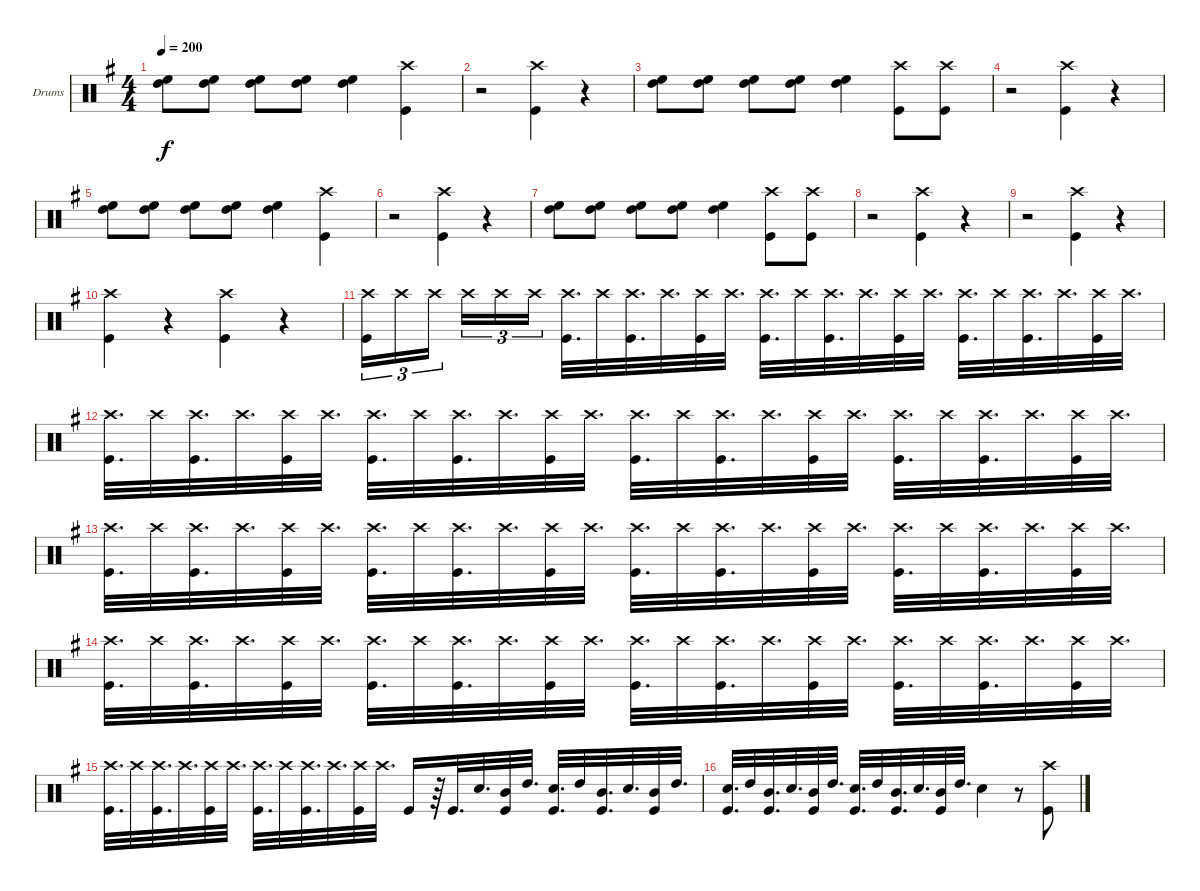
\bracketExtendMode groupsimilarinstruments
\firstSystemTrackNameOrientation horizontal
\otherSystemsTrackNameOrientation horizontal
\track ("Drumkit" "Drums") {instrument percussion}
\staff {score}
\articulation defaults
\ts (4 4)
\tempo 200
\clef neutral
\ks g
("High Floor Tom (hit)" "High Tom (hit)").8{dy f} ("High Floor Tom (hit)" "High Tom (hit)").8 ("High Floor Tom (hit)" "High Tom (hit)").8 ("High Floor Tom (hit)" "High Tom (hit)").8 ("High Floor Tom (hit)" "High Tom (hit)").4 ("Crash high (hit)" "Kick (hit)").4 |
r.2 ("Kick (hit)" "Crash high (hit)").4 r.4 |
("High Floor Tom (hit)" "High Tom (hit)").8 ("High Floor Tom (hit)" "High Tom (hit)").8 ("High Floor Tom (hit)" "High Tom (hit)").8 ("High Floor Tom (hit)" "High Tom (hit)").8 ("High Floor Tom (hit)" "High Tom (hit)").4 ("Crash high (hit)" "Kick (hit)").8 ("Kick (hit)" "Crash high (hit)").8 |
r.2 ("Kick (hit)" "Crash high (hit)").4 r.4 |
("High Floor Tom (hit)" "High Tom (hit)").8 ("High Floor Tom (hit)" "High Tom (hit)").8 ("High Floor Tom (hit)" "High Tom (hit)").8 ("High Floor Tom (hit)" "High Tom (hit)").8 ("High Floor Tom (hit)" "High Tom (hit)").4 ("Crash high (hit)" "Kick (hit)").4 |
r.2 ("Kick (hit)" "Crash high (hit)").4 r.4 |
("High Floor Tom (hit)" "High Tom (hit)").8 ("High Floor Tom (hit)" "High Tom (hit)").8 ("High Floor Tom (hit)" "High Tom (hit)").8 ("High Floor Tom (hit)" "High Tom (hit)").8 ("High Floor Tom (hit)" "High Tom (hit)").4 ("Crash high (hit)" "Kick (hit)").8 ("Kick (hit)" "Crash high (hit)").8 |
r.2 ("Kick (hit)" "Crash high (hit)").4 r.4 |
r.2 ("Kick (hit)" "Crash high (hit)").4 r.4 |
("Crash high (hit)" "Kick (hit)").4 r.4 ("Kick (hit)" "Crash high (hit)").4 r.4 |
("Kick (hit)" "Crash high (hit)").16{tu (3 2)} "Crash high (hit)".16{tu (3 2)} "Crash high (hit)".16{tu (3 2)} "Crash high (hit)".16{tu (3 2)} "Crash high (hit)".16{tu (3 2)} "Crash high (hit)".16{tu (3 2)} ("Kick (hit)" "Crash high (hit)").32{d} "Crash high (hit)".32 ("Kick (hit)" "Crash high (hit)").32{d} "Crash high (hit)".32{d} ("Kick (hit)" "Crash high (hit)").32 "Crash high (hit)".32{d} ("Kick (hit)" "Crash high (hit)").32{d} "Crash high (hit)".32 ("Kick (hit)" "Crash high (hit)").32{d} "Crash high (hit)".32{d} ("Kick (hit)" "Crash high (hit)").32 "Crash high (hit)".32{d} ("Kick (hit)" "Crash high (hit)").32{d} "Crash high (hit)".32 ("Kick (hit)" "Crash high (hit)").32{d} "Crash high (hit)".32{d} ("Kick (hit)" "Crash high (hit)").32 "Crash high (hit)".32{d} |
("Kick (hit)" "Crash high (hit)").32{d} "Crash high (hit)".32 ("Kick (hit)" "Crash high (hit)").32{d} "Crash high (hit)".32{d} ("Kick (hit)" "Crash high (hit)").32 "Crash high (hit)".32{d} ("Kick (hit)" "Crash high (hit)").32{d} "Crash high (hit)".32 ("Kick (hit)" "Crash high (hit)").32{d} "Crash high (hit)".32{d} ("Kick (hit)" "Crash high (hit)").32 "Crash high (hit)".32{d} ("Kick (hit)" "Crash high (hit)").32{d} "Crash high (hit)".32 ("Kick (hit)" "Crash high (hit)").32{d} "Crash high (hit)".32{d} ("Kick (hit)" "Crash high (hit)").32 "Crash high (hit)".32{d} ("Kick (hit)" "Crash high (hit)").32{d} "Crash high (hit)".32 ("Kick (hit)" "Crash high (hit)").32{d} "Crash high (hit)".32{d} ("Kick (hit)" "Crash high (hit)").32 "Crash high (hit)".32{d} |
("Kick (hit)" "Crash high (hit)").32{d} "Crash high (hit)".32 ("Kick (hit)" "Crash high (hit)").32{d} "Crash high (hit)".32{d} ("Kick (hit)" "Crash high (hit)").32 "Crash high (hit)".32{d} ("Kick (hit)" "Crash high (hit)").32{d} "Crash high (hit)".32 ("Kick (hit)" "Crash high (hit)").32{d} "Crash high (hit)".32{d} ("Kick (hit)" "Crash high (hit)").32 "Crash high (hit)".32{d} ("Kick (hit)" "Crash high (hit)").32{d} "Crash high (hit)".32 ("Kick (hit)" "Crash high (hit)").32{d} "Crash high (hit)".32{d} ("Kick (hit)" "Crash high (hit)").32 "Crash high (hit)".32{d} ("Kick (hit)" "Crash high (hit)").32{d} "Crash high (hit)".32 ("Kick (hit)" "Crash high (hit)").32{d} "Crash high (hit)".32{d} ("Kick (hit)" "Crash high (hit)").32 "Crash high (hit)".32{d} |
("Kick (hit)" "Crash high (hit)").32{d} "Crash high (hit)".32 ("Kick (hit)" "Crash high (hit)").32{d} "Crash high (hit)".32{d} ("Kick (hit)" "Crash high (hit)").32 "Crash high (hit)".32{d} ("Kick (hit)" "Crash high (hit)").32{d} "Crash high (hit)".32 ("Kick (hit)" "Crash high (hit)").32{d} "Crash high (hit)".32{d} ("Kick (hit)" "Crash high (hit)").32 "Crash high (hit)".32{d} ("Kick (hit)" "Crash high (hit)").32{d} "Crash high (hit)".32 ("Kick (hit)" "Crash high (hit)").32{d} "Crash high (hit)".32{d} ("Kick (hit)" "Crash high (hit)").32 "Crash high (hit)".32{d} ("Kick (hit)" "Crash high (hit)").32{d} "Crash high (hit)".32 ("Kick (hit)" "Crash high (hit)").32{d} "Crash high (hit)".32{d} ("Kick (hit)" "Crash high (hit)").32 "Crash high (hit)".32{d} |
("Kick (hit)" "Crash high (hit)").32{d} "Crash high (hit)".32 ("Kick (hit)" "Crash high (hit)").32{d} "Crash high (hit)".32{d} ("Kick (hit)" "Crash high (hit)").32 "Crash high (hit)".32{d} ("Kick (hit)" "Crash high (hit)").32{d} "Crash high (hit)".32 ("Kick (hit)" "Crash high (hit)").32{d} "Crash high (hit)".32{d} ("Kick (hit)" "Crash high (hit)").32 "Crash high (hit)".32{d} "Kick (hit)".16 r.64 "Kick (hit)".32{d} "Snare (hit) 2".32{d} ("Mid Tom (hit)" "Kick (hit)").32 "High Tom (hit)".32{d} ("Snare (hit) 2" "Kick (hit)").32{d} "High Tom (hit)".32 ("Mid Tom (hit)" "Kick (hit)").32{d} "Snare (hit) 2".32{d} ("Mid Tom (hit)" "Kick (hit)").32 "High Tom (hit)".32{d} |
("Snare (hit) 2" "Kick (hit)").32{d} "High Tom (hit)".32 ("Mid Tom (hit)" "Kick (hit)").32{d} "Snare (hit) 2".32{d} ("Mid Tom (hit)" "Kick (hit)").32 "High Tom (hit)".32{d} ("Snare (hit) 2" "Kick (hit)").32{d} "High Tom (hit)".32 ("Mid Tom (hit)" "Kick (hit)").32{d} "Snare (hit) 2".32{d} ("Mid Tom (hit)" "Kick (hit)").32 "High Tom (hit)".32{d} "Snare (hit) 2".4 r.8 ("Kick (hit)" "Crash high (hit)").8
